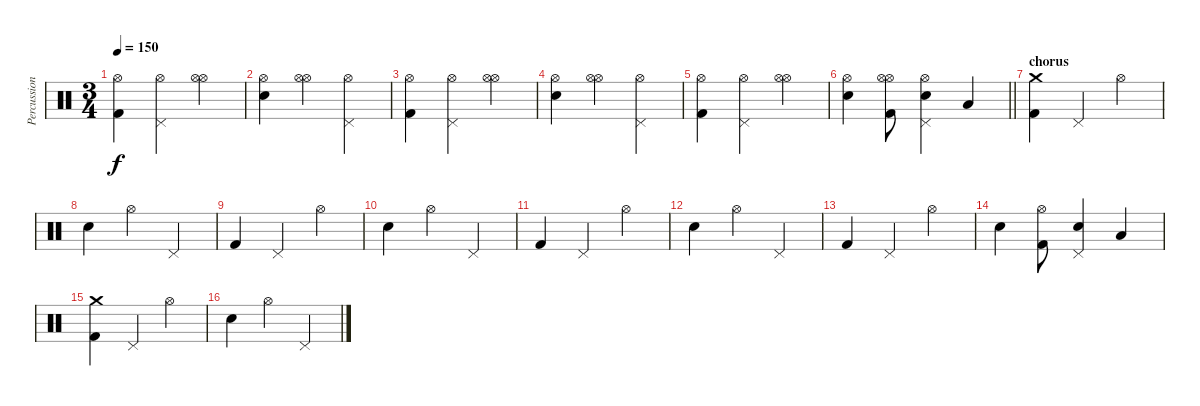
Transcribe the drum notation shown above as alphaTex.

\track ("Percussion" "Percussion") {instrument percussion}
\staff {score}
\articulation defaults
\ts (3 4)
\tempo 150
\clef neutral
\ks c
("Kick (hit) 2" "Hi-Hat (open)").4{dy f} ("Pedal Hi-Hat (hit)" "Hi-Hat (open)").4 ("Hi-Hat (open)" "Hi-Hat (open)").4 |
("Snare (hit) 2" "Hi-Hat (open)").4 ("Hi-Hat (open)" "Hi-Hat (open)").4 ("Pedal Hi-Hat (hit)" "Hi-Hat (open)").4 |
("Kick (hit) 2" "Hi-Hat (open)").4 ("Pedal Hi-Hat (hit)" "Hi-Hat (open)").4 ("Hi-Hat (open)" "Hi-Hat (open)").4 |
("Snare (hit) 2" "Hi-Hat (open)").4 ("Hi-Hat (open)" "Hi-Hat (open)").4 ("Pedal Hi-Hat (hit)" "Hi-Hat (open)").4 |
("Kick (hit) 2" "Hi-Hat (open)").4 ("Pedal Hi-Hat (hit)" "Hi-Hat (open)").4 ("Hi-Hat (open)" "Hi-Hat (open)").4 |
\barLineRight lightlight
("Snare (hit) 2" "Hi-Hat (open)").4 ("Kick (hit) 2" "Hi-Hat (open)" "Hi-Hat (open)").8 ("Snare (hit) 2" "Pedal Hi-Hat (hit)" "Hi-Hat (open)").4 "Low Tom (hit)".4 |
\section ("" "chorus")
("Kick (hit) 2" "Crash medium (hit)").4 "Pedal Hi-Hat (hit)".4 "Hi-Hat (open)".4 |
"Snare (hit) 2".4 "Hi-Hat (open)".4 "Pedal Hi-Hat (hit)".4 |
"Kick (hit) 2".4 "Pedal Hi-Hat (hit)".4 "Hi-Hat (open)".4 |
"Snare (hit) 2".4 "Hi-Hat (open)".4 "Pedal Hi-Hat (hit)".4 |
"Kick (hit) 2".4 "Pedal Hi-Hat (hit)".4 "Hi-Hat (open)".4 |
"Snare (hit) 2".4 "Hi-Hat (open)".4 "Pedal Hi-Hat (hit)".4 |
"Kick (hit) 2".4 "Pedal Hi-Hat (hit)".4 "Hi-Hat (open)".4 |
"Snare (hit) 2".4 ("Kick (hit) 2" "Hi-Hat (open)").8 ("Snare (hit) 2" "Pedal Hi-Hat (hit)").4 "Low Tom (hit)".4 |
("Kick (hit) 2" "Crash medium (hit)").4 "Pedal Hi-Hat (hit)".4 "Hi-Hat (open)".4 |
"Snare (hit) 2".4 "Hi-Hat (open)".4 "Pedal Hi-Hat (hit)".4
